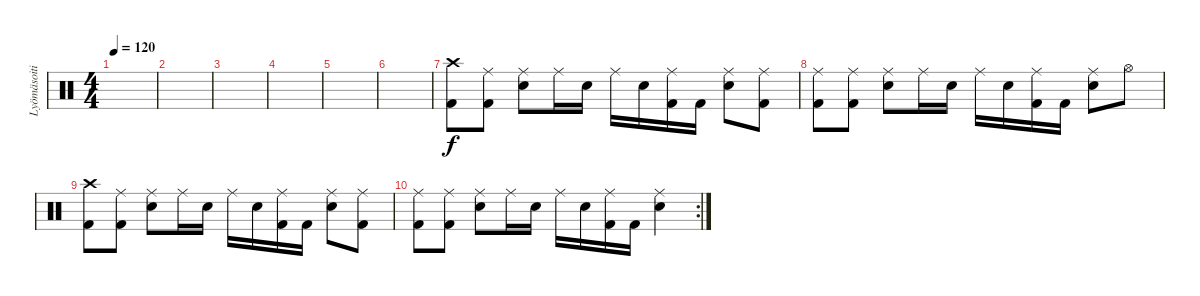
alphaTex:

\track ("Lyömäsoitin" "Lyömäsoiti") {instrument percussion}
\staff {score}
\articulation defaults
\ts (4 4)
\tempo 120
\clef neutral
\ks c
|
|
|
|
|
|
("Crash high (hit)" "Kick (hit) 2").8 ("Ride (middle)" "Kick (hit) 2").8 ("Ride (middle)" "Snare (hit) 2").8 "Ride (middle)".16 "Snare (hit) 2".16 "Ride (middle)".16 "Snare (hit) 2".16 ("Ride (middle)" "Kick (hit) 2").16 "Kick (hit) 2".16 ("Ride (middle)" "Snare (hit) 2").8 ("Ride (middle)" "Kick (hit) 2").8 |
("Ride (middle)" "Kick (hit) 2").8 ("Ride (middle)" "Kick (hit) 2").8 ("Ride (middle)" "Snare (hit) 2").8 "Ride (middle)".16 "Snare (hit) 2".16 "Ride (middle)".16 "Snare (hit) 2".16 ("Ride (middle)" "Kick (hit) 2").16 "Kick (hit) 2".16 ("Ride (middle)" "Snare (hit) 2").8 "Hi-Hat (open)".8 |
("Crash high (hit)" "Kick (hit) 2").8 ("Ride (middle)" "Kick (hit) 2").8 ("Ride (middle)" "Snare (hit) 2").8 "Ride (middle)".16 "Snare (hit) 2".16 "Ride (middle)".16 "Snare (hit) 2".16 ("Ride (middle)" "Kick (hit) 2").16 "Kick (hit) 2".16 ("Ride (middle)" "Snare (hit) 2").8 ("Ride (middle)" "Kick (hit) 2").8 |
\rc 2
("Ride (middle)" "Kick (hit) 2").8 ("Ride (middle)" "Kick (hit) 2").8 ("Ride (middle)" "Snare (hit) 2").8 "Ride (middle)".16 "Snare (hit) 2".16 "Ride (middle)".16 "Snare (hit) 2".16 ("Ride (middle)" "Kick (hit) 2").16 "Kick (hit) 2".16 ("Ride (middle)" "Snare (hit) 2").4
